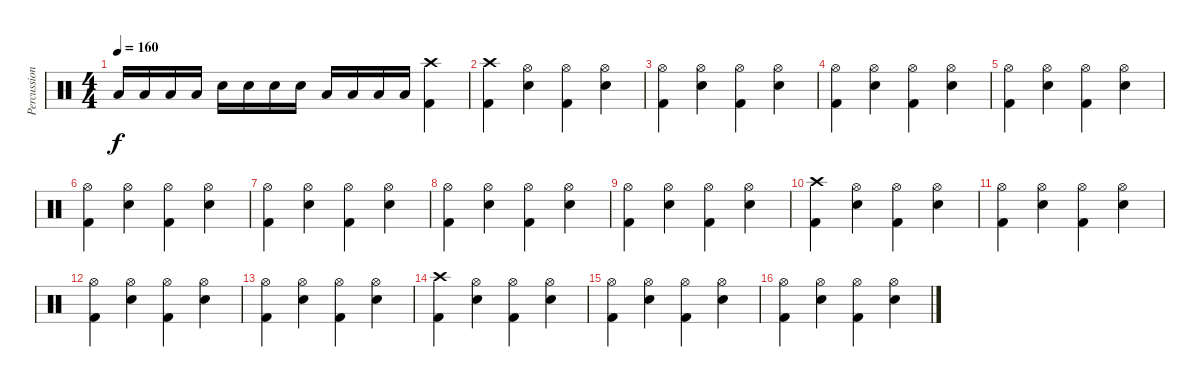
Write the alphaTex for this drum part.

\track ("Percussioni" "Percussion") {instrument percussion}
\staff {score}
\articulation defaults
\ts (4 4)
\tempo 160
\clef neutral
\ks c "Low Tom (hit)".16{dy f} "Low Tom (hit)".16 "Low Tom (hit)".16 "Low Tom (hit)".16 "Electric Snare (hit)".16 "Electric Snare (hit)".16 "Electric Snare (hit)".16 "Electric Snare (hit)".16 "Low Tom (hit)".16 "Low Tom (hit)".16 "Low Tom (hit)".16 "Low Tom (hit)".16
("Crash high (hit)" "Kick (hit) 2").4 |
("Kick (hit) 2" "Crash high (hit)").4 ("Hi-Hat (open)" "Electric Snare (hit)").4 ("Kick (hit) 2" "Hi-Hat (open)").4 ("Hi-Hat (open)" "Electric Snare (hit)").4 |
("Kick (hit) 2" "Hi-Hat (open)").4 ("Hi-Hat (open)" "Electric Snare (hit)").4 ("Kick (hit) 2" "Hi-Hat (open)").4 ("Hi-Hat (open)" "Electric Snare (hit)").4 |
("Kick (hit) 2" "Hi-Hat (open)").4 ("Hi-Hat (open)" "Electric Snare (hit)").4 ("Kick (hit) 2" "Hi-Hat (open)").4 ("Hi-Hat (open)" "Electric Snare (hit)").4 |
("Kick (hit) 2" "Hi-Hat (open)").4 ("Hi-Hat (open)" "Electric Snare (hit)").4 ("Kick (hit) 2" "Hi-Hat (open)").4 ("Hi-Hat (open)" "Electric Snare (hit)").4 |
("Kick (hit) 2" "Hi-Hat (open)").4 ("Hi-Hat (open)" "Electric Snare (hit)").4 ("Kick (hit) 2" "Hi-Hat (open)").4 ("Hi-Hat (open)" "Electric Snare (hit)").4 |
("Kick (hit) 2" "Hi-Hat (open)").4 ("Hi-Hat (open)" "Electric Snare (hit)").4 ("Kick (hit) 2" "Hi-Hat (open)").4 ("Hi-Hat (open)" "Electric Snare (hit)").4 |
("Kick (hit) 2" "Hi-Hat (open)").4 ("Hi-Hat (open)" "Electric Snare (hit)").4 ("Kick (hit) 2" "Hi-Hat (open)").4 ("Hi-Hat (open)" "Electric Snare (hit)").4 |
("Kick (hit) 2" "Hi-Hat (open)").4 ("Hi-Hat (open)" "Electric Snare (hit)").4 ("Kick (hit) 2" "Hi-Hat (open)").4 ("Hi-Hat (open)" "Electric Snare (hit)").4 |
("Kick (hit) 2" "Crash high (hit)").4 ("Hi-Hat (open)" "Electric Snare (hit)").4 ("Kick (hit) 2" "Hi-Hat (open)").4 ("Hi-Hat (open)" "Electric Snare (hit)").4 |
("Kick (hit) 2" "Hi-Hat (open)").4 ("Hi-Hat (open)" "Electric Snare (hit)").4 ("Kick (hit) 2" "Hi-Hat (open)").4 ("Hi-Hat (open)" "Electric Snare (hit)").4 |
("Kick (hit) 2" "Hi-Hat (open)").4 ("Hi-Hat (open)" "Electric Snare (hit)").4 ("Kick (hit) 2" "Hi-Hat (open)").4 ("Hi-Hat (open)" "Electric Snare (hit)").4 |
("Kick (hit) 2" "Hi-Hat (open)").4 ("Hi-Hat (open)" "Electric Snare (hit)").4 ("Kick (hit) 2" "Hi-Hat (open)").4 ("Hi-Hat (open)" "Electric Snare (hit)").4 |
("Kick (hit) 2" "Crash high (hit)").4 ("Hi-Hat (open)" "Electric Snare (hit)").4 ("Kick (hit) 2" "Hi-Hat (open)").4 ("Hi-Hat (open)" "Electric Snare (hit)").4 |
("Kick (hit) 2" "Hi-Hat (open)").4 ("Hi-Hat (open)" "Electric Snare (hit)").4 ("Kick (hit) 2" "Hi-Hat (open)").4 ("Hi-Hat (open)" "Electric Snare (hit)").4 |
("Kick (hit) 2" "Hi-Hat (open)").4 ("Hi-Hat (open)" "Electric Snare (hit)").4 ("Kick (hit) 2" "Hi-Hat (open)").4 ("Hi-Hat (open)" "Electric Snare (hit)").4
